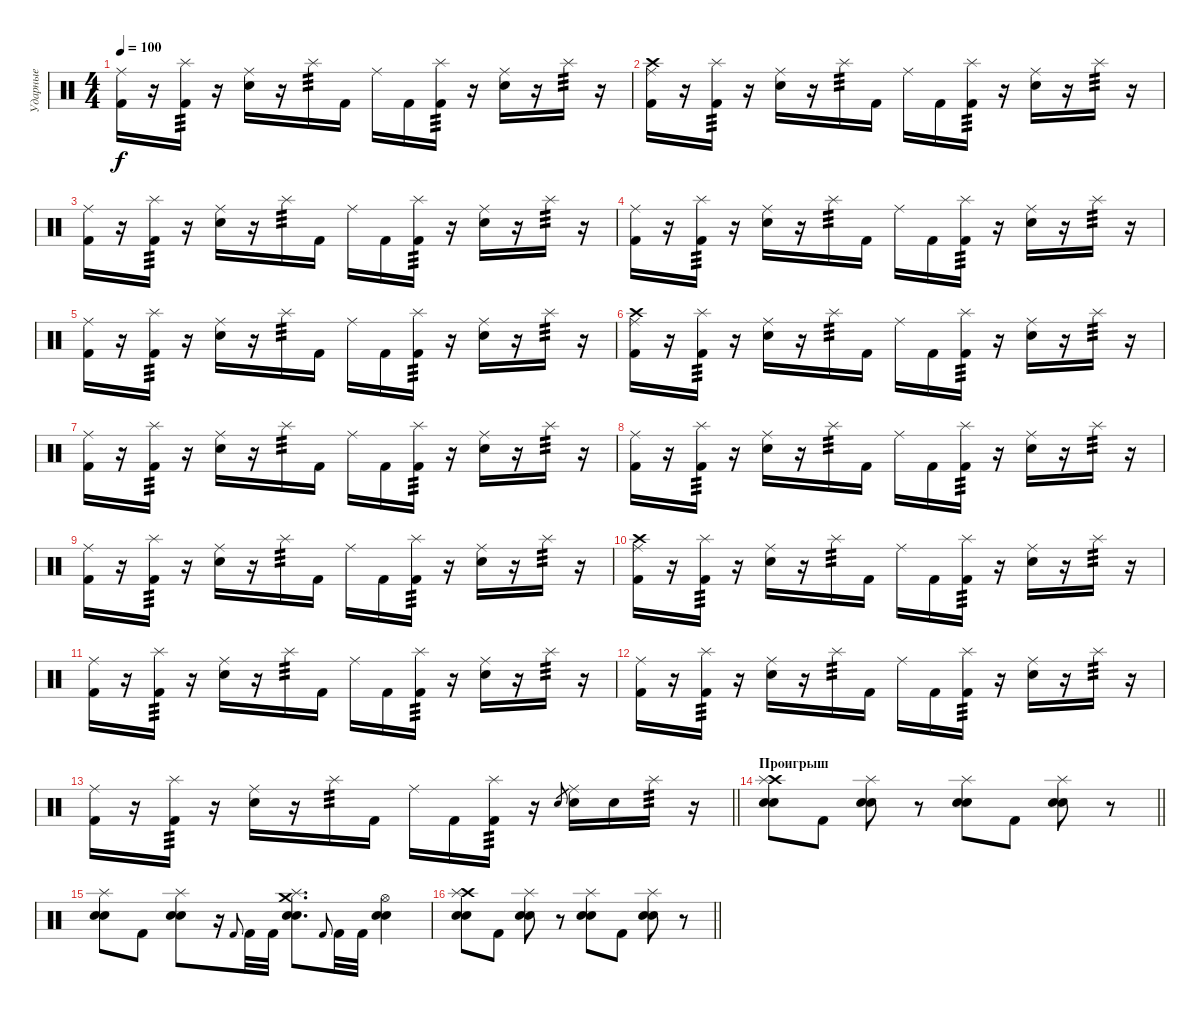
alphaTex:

\track ("Ударные" "Ударные") {instrument percussion}
\staff {score}
\articulation defaults
\ts (4 4)
\tempo 100
\clef neutral
\ks c
("Kick (hit) 2" "Ride (middle)").16{dy f} r.16 ("Kick (hit) 2" "Splash (hit)").16{tp 3} r.16 ("Electric Snare (hit)" "Ride (middle)").16 r.16 "Splash (hit)".16{tp 3} "Kick (hit) 2".16 "Ride (middle)".16 "Kick (hit) 2".16 ("Kick (hit) 2" "Splash (hit)").16{tp 3} r.16 ("Electric Snare (hit)" "Ride (middle)").16 r.16 "Splash (hit)".16{tp 3} r.16 |
("Crash high (hit)" "Kick (hit) 2" "Ride (middle)").16 r.16 ("Kick (hit) 2" "Splash (hit)").16{tp 3} r.16 ("Electric Snare (hit)" "Ride (middle)").16 r.16 "Splash (hit)".16{tp 3} "Kick (hit) 2".16 "Ride (middle)".16 "Kick (hit) 2".16 ("Kick (hit) 2" "Splash (hit)").16{tp 3} r.16 ("Electric Snare (hit)" "Ride (middle)").16 r.16 "Splash (hit)".16{tp 3} r.16 |
("Kick (hit) 2" "Ride (middle)").16 r.16 ("Kick (hit) 2" "Splash (hit)").16{tp 3} r.16 ("Electric Snare (hit)" "Ride (middle)").16 r.16 "Splash (hit)".16{tp 3} "Kick (hit) 2".16 "Ride (middle)".16 "Kick (hit) 2".16 ("Kick (hit) 2" "Splash (hit)").16{tp 3} r.16 ("Electric Snare (hit)" "Ride (middle)").16 r.16 "Splash (hit)".16{tp 3} r.16 |
("Kick (hit) 2" "Ride (middle)").16 r.16 ("Kick (hit) 2" "Splash (hit)").16{tp 3} r.16 ("Electric Snare (hit)" "Ride (middle)").16 r.16 "Splash (hit)".16{tp 3} "Kick (hit) 2".16 "Ride (middle)".16 "Kick (hit) 2".16 ("Kick (hit) 2" "Splash (hit)").16{tp 3} r.16 ("Electric Snare (hit)" "Ride (middle)").16 r.16 "Splash (hit)".16{tp 3} r.16 |
("Kick (hit) 2" "Ride (middle)").16 r.16 ("Kick (hit) 2" "Splash (hit)").16{tp 3} r.16 ("Electric Snare (hit)" "Ride (middle)").16 r.16 "Splash (hit)".16{tp 3} "Kick (hit) 2".16 "Ride (middle)".16 "Kick (hit) 2".16 ("Kick (hit) 2" "Splash (hit)").16{tp 3} r.16 ("Electric Snare (hit)" "Ride (middle)").16 r.16 "Splash (hit)".16{tp 3} r.16 |
("Crash high (hit)" "Kick (hit) 2" "Ride (middle)").16 r.16 ("Kick (hit) 2" "Splash (hit)").16{tp 3} r.16 ("Electric Snare (hit)" "Ride (middle)").16 r.16 "Splash (hit)".16{tp 3} "Kick (hit) 2".16 "Ride (middle)".16 "Kick (hit) 2".16 ("Kick (hit) 2" "Splash (hit)").16{tp 3} r.16 ("Electric Snare (hit)" "Ride (middle)").16 r.16 "Splash (hit)".16{tp 3} r.16 |
("Kick (hit) 2" "Ride (middle)").16 r.16 ("Kick (hit) 2" "Splash (hit)").16{tp 3} r.16 ("Electric Snare (hit)" "Ride (middle)").16 r.16 "Splash (hit)".16{tp 3} "Kick (hit) 2".16 "Ride (middle)".16 "Kick (hit) 2".16 ("Kick (hit) 2" "Splash (hit)").16{tp 3} r.16 ("Electric Snare (hit)" "Ride (middle)").16 r.16 "Splash (hit)".16{tp 3} r.16 |
("Kick (hit) 2" "Ride (middle)").16 r.16 ("Kick (hit) 2" "Splash (hit)").16{tp 3} r.16 ("Electric Snare (hit)" "Ride (middle)").16 r.16 "Splash (hit)".16{tp 3} "Kick (hit) 2".16 "Ride (middle)".16 "Kick (hit) 2".16 ("Kick (hit) 2" "Splash (hit)").16{tp 3} r.16 ("Electric Snare (hit)" "Ride (middle)").16 r.16 "Splash (hit)".16{tp 3} r.16 |
("Kick (hit) 2" "Ride (middle)").16 r.16 ("Kick (hit) 2" "Splash (hit)").16{tp 3} r.16 ("Electric Snare (hit)" "Ride (middle)").16 r.16 "Splash (hit)".16{tp 3} "Kick (hit) 2".16 "Ride (middle)".16 "Kick (hit) 2".16 ("Kick (hit) 2" "Splash (hit)").16{tp 3} r.16 ("Electric Snare (hit)" "Ride (middle)").16 r.16 "Splash (hit)".16{tp 3} r.16 |
("Crash high (hit)" "Kick (hit) 2" "Ride (middle)").16 r.16 ("Kick (hit) 2" "Splash (hit)").16{tp 3} r.16 ("Electric Snare (hit)" "Ride (middle)").16 r.16 "Splash (hit)".16{tp 3} "Kick (hit) 2".16 "Ride (middle)".16 "Kick (hit) 2".16 ("Kick (hit) 2" "Splash (hit)").16{tp 3} r.16 ("Electric Snare (hit)" "Ride (middle)").16 r.16 "Splash (hit)".16{tp 3} r.16 |
("Kick (hit) 2" "Ride (middle)").16 r.16 ("Kick (hit) 2" "Splash (hit)").16{tp 3} r.16 ("Electric Snare (hit)" "Ride (middle)").16 r.16 "Splash (hit)".16{tp 3} "Kick (hit) 2".16 "Ride (middle)".16 "Kick (hit) 2".16 ("Kick (hit) 2" "Splash (hit)").16{tp 3} r.16 ("Electric Snare (hit)" "Ride (middle)").16 r.16 "Splash (hit)".16{tp 3} r.16 |
("Kick (hit) 2" "Ride (middle)").16 r.16 ("Kick (hit) 2" "Splash (hit)").16{tp 3} r.16 ("Electric Snare (hit)" "Ride (middle)").16 r.16 "Splash (hit)".16{tp 3} "Kick (hit) 2".16 "Ride (middle)".16 "Kick (hit) 2".16 ("Kick (hit) 2" "Splash (hit)").16{tp 3} r.16 ("Electric Snare (hit)" "Ride (middle)").16 r.16 "Splash (hit)".16{tp 3} r.16 |
\barLineRight lightlight
("Kick (hit) 2" "Ride (middle)").16 r.16 ("Kick (hit) 2" "Splash (hit)").16{tp 3} r.16 ("Electric Snare (hit)" "Ride (middle)").16 r.16 "Splash (hit)".16{tp 3} "Kick (hit) 2".16 "Ride (middle)".16 "Kick (hit) 2".16 ("Kick (hit) 2" "Splash (hit)").16{tp 3} r.16 "Electric Snare (hit)".8{gr} ("Electric Snare (hit)" "Ride (middle)").16 "Electric Snare (hit)".16 "Splash (hit)".16{tp 3} r.16 |
\section ("" "Проигрыш")
\barLineRight lightlight
("Crash high (hit)" "Electric Snare (hit)" "Electric Snare (hit)" "Splash (hit)").8 "Kick (hit) 2".8 ("Electric Snare (hit)" "Electric Snare (hit)" "Splash (hit)").8 r.8 ("Electric Snare (hit)" "Electric Snare (hit)" "Splash (hit)").8 "Kick (hit) 2".8 ("Electric Snare (hit)" "Electric Snare (hit)" "Splash (hit)").8 r.8 |
("Electric Snare (hit)" "Electric Snare (hit)" "Splash (hit)").8 "Kick (hit) 2".8 ("Electric Snare (hit)" "Electric Snare (hit)" "Splash (hit)").8 r.16 "Kick (hit) 2".8{gr onbeat} "Kick (hit) 2".32 "Kick (hit) 2".32 ("Crash medium (hit)" "Electric Snare (hit)" "Electric Snare (hit)" "Splash (hit)").8{d} "Kick (hit) 2".8{gr onbeat} "Kick (hit) 2".32 "Kick (hit) 2".32 ("Electric Snare (hit)" "Electric Snare (hit)" "Hi-Hat (open)").4 |
\barLineRight lightlight
("Crash high (hit)" "Electric Snare (hit)" "Electric Snare (hit)" "Splash (hit)").8 "Kick (hit) 2".8 ("Electric Snare (hit)" "Electric Snare (hit)" "Splash (hit)").8 r.8 ("Electric Snare (hit)" "Electric Snare (hit)" "Splash (hit)").8 "Kick (hit) 2".8 ("Electric Snare (hit)" "Electric Snare (hit)" "Splash (hit)").8 r.8
